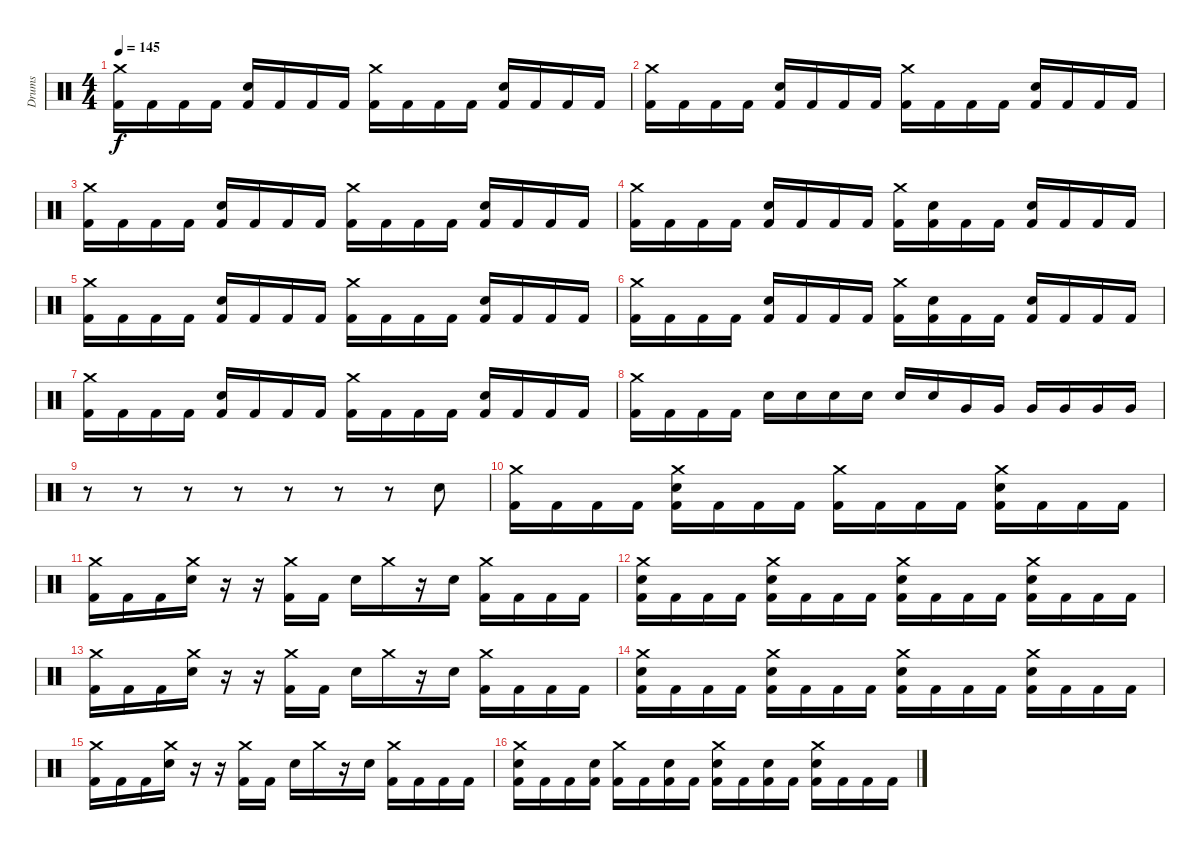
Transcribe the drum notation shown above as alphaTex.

\track ("Drums" "Drums") {instrument percussion}
\staff {score}
\articulation defaults
\ts (4 4)
\tempo 145
\clef neutral
\ks c
("Crash medium (hit)" "Kick (hit) 2").16{dy f} "Kick (hit) 2".16 "Kick (hit) 2".16 "Kick (hit) 2".16 ("Snare (hit) 2" "Kick (hit) 2").16 "Kick (hit) 2".16 "Kick (hit) 2".16 "Kick (hit) 2".16 ("Crash medium (hit)" "Kick (hit) 2").16 "Kick (hit) 2".16 "Kick (hit) 2".16 "Kick (hit) 2".16 ("Snare (hit) 2" "Kick (hit) 2").16 "Kick (hit) 2".16 "Kick (hit) 2".16 "Kick (hit) 2".16 |
("Crash medium (hit)" "Kick (hit) 2").16 "Kick (hit) 2".16 "Kick (hit) 2".16 "Kick (hit) 2".16 ("Snare (hit) 2" "Kick (hit) 2").16 "Kick (hit) 2".16 "Kick (hit) 2".16 "Kick (hit) 2".16 ("Crash medium (hit)" "Kick (hit) 2").16 "Kick (hit) 2".16 "Kick (hit) 2".16 "Kick (hit) 2".16 ("Snare (hit) 2" "Kick (hit) 2").16 "Kick (hit) 2".16 "Kick (hit) 2".16 "Kick (hit) 2".16 |
("Crash medium (hit)" "Kick (hit) 2").16 "Kick (hit) 2".16 "Kick (hit) 2".16 "Kick (hit) 2".16 ("Snare (hit) 2" "Kick (hit) 2").16 "Kick (hit) 2".16 "Kick (hit) 2".16 "Kick (hit) 2".16 ("Crash medium (hit)" "Kick (hit) 2").16 "Kick (hit) 2".16 "Kick (hit) 2".16 "Kick (hit) 2".16 ("Snare (hit) 2" "Kick (hit) 2").16 "Kick (hit) 2".16 "Kick (hit) 2".16 "Kick (hit) 2".16 |
("Crash medium (hit)" "Kick (hit) 2").16 "Kick (hit) 2".16 "Kick (hit) 2".16 "Kick (hit) 2".16 ("Snare (hit) 2" "Kick (hit) 2").16 "Kick (hit) 2".16 "Kick (hit) 2".16 "Kick (hit) 2".16 ("Crash medium (hit)" "Kick (hit) 2").16 ("Snare (hit) 2" "Kick (hit) 2").16 "Kick (hit) 2".16 "Kick (hit) 2".16 ("Snare (hit) 2" "Kick (hit) 2").16 "Kick (hit) 2".16 "Kick (hit) 2".16 "Kick (hit) 2".16 |
("Crash medium (hit)" "Kick (hit) 2").16 "Kick (hit) 2".16 "Kick (hit) 2".16 "Kick (hit) 2".16 ("Snare (hit) 2" "Kick (hit) 2").16 "Kick (hit) 2".16 "Kick (hit) 2".16 "Kick (hit) 2".16 ("Crash medium (hit)" "Kick (hit) 2").16 "Kick (hit) 2".16 "Kick (hit) 2".16 "Kick (hit) 2".16 ("Snare (hit) 2" "Kick (hit) 2").16 "Kick (hit) 2".16 "Kick (hit) 2".16 "Kick (hit) 2".16 |
("Crash medium (hit)" "Kick (hit) 2").16 "Kick (hit) 2".16 "Kick (hit) 2".16 "Kick (hit) 2".16 ("Snare (hit) 2" "Kick (hit) 2").16 "Kick (hit) 2".16 "Kick (hit) 2".16 "Kick (hit) 2".16 ("Crash medium (hit)" "Kick (hit) 2").16 ("Snare (hit) 2" "Kick (hit) 2").16 "Kick (hit) 2".16 "Kick (hit) 2".16 ("Snare (hit) 2" "Kick (hit) 2").16 "Kick (hit) 2".16 "Kick (hit) 2".16 "Kick (hit) 2".16 |
("Crash medium (hit)" "Kick (hit) 2").16 "Kick (hit) 2".16 "Kick (hit) 2".16 "Kick (hit) 2".16 ("Snare (hit) 2" "Kick (hit) 2").16 "Kick (hit) 2".16 "Kick (hit) 2".16 "Kick (hit) 2".16 ("Crash medium (hit)" "Kick (hit) 2").16 "Kick (hit) 2".16 "Kick (hit) 2".16 "Kick (hit) 2".16 ("Snare (hit) 2" "Kick (hit) 2").16 "Kick (hit) 2".16 "Kick (hit) 2".16 "Kick (hit) 2".16 |
("Crash medium (hit)" "Kick (hit) 2").16 "Kick (hit) 2".16 "Kick (hit) 2".16 "Kick (hit) 2".16 "Snare (hit) 2".16 "Snare (hit) 2".16 "Snare (hit) 2".16 "Snare (hit) 2".16 "Snare (hit) 2".16 "Snare (hit) 2".16 "Very Low Tom (hit)".16 "Very Low Tom (hit)".16 "Very Low Tom (hit)".16 "Very Low Tom (hit)".16 "Very Low Tom (hit)".16 "Very Low Tom (hit)".16 |
r.8 r.8 r.8 r.8 r.8 r.8 r.8 "Electric Snare (hit)".8 |
("Crash medium (hit)" "Kick (hit) 2").16 "Kick (hit) 2".16 "Kick (hit) 2".16 "Kick (hit) 2".16 ("Crash medium (hit)" "Snare (hit) 2" "Kick (hit) 2").16 "Kick (hit) 2".16 "Kick (hit) 2".16 "Kick (hit) 2".16 ("Crash medium (hit)" "Kick (hit) 2").16 "Kick (hit) 2".16 "Kick (hit) 2".16 "Kick (hit) 2".16 ("Crash medium (hit)" "Snare (hit) 2" "Kick (hit) 2").16 "Kick (hit) 2".16 "Kick (hit) 2".16 "Kick (hit) 2".16 |
("Crash medium (hit)" "Kick (hit) 2").16 "Kick (hit) 2".16 "Kick (hit) 2".16 ("Crash medium (hit)" "Snare (hit) 2").16 r.16 r.16 ("Crash medium (hit)" "Kick (hit) 2").16 "Kick (hit) 2".16 "Snare (hit) 2".16 "Crash medium (hit)".16 r.16 "Snare (hit) 2".16 ("Crash medium (hit)" "Kick (hit) 2").16 "Kick (hit) 2".16 "Kick (hit) 2".16 "Kick (hit) 2".16 |
("Crash medium (hit)" "Snare (hit) 2" "Kick (hit) 2").16 "Kick (hit) 2".16 "Kick (hit) 2".16 "Kick (hit) 2".16 ("Crash medium (hit)" "Snare (hit) 2" "Kick (hit) 2").16 "Kick (hit) 2".16 "Kick (hit) 2".16 "Kick (hit) 2".16 ("Crash medium (hit)" "Snare (hit) 2" "Kick (hit) 2").16 "Kick (hit) 2".16 "Kick (hit) 2".16 "Kick (hit) 2".16 ("Crash medium (hit)" "Snare (hit) 2" "Kick (hit) 2").16 "Kick (hit) 2".16 "Kick (hit) 2".16 "Kick (hit) 2".16 |
("Crash medium (hit)" "Kick (hit) 2").16 "Kick (hit) 2".16 "Kick (hit) 2".16 ("Crash medium (hit)" "Snare (hit) 2").16 r.16 r.16 ("Crash medium (hit)" "Kick (hit) 2").16 "Kick (hit) 2".16 "Snare (hit) 2".16 "Crash medium (hit)".16 r.16 "Snare (hit) 2".16 ("Crash medium (hit)" "Kick (hit) 2").16 "Kick (hit) 2".16 "Kick (hit) 2".16 "Kick (hit) 2".16 |
("Crash medium (hit)" "Snare (hit) 2" "Kick (hit) 2").16 "Kick (hit) 2".16 "Kick (hit) 2".16 "Kick (hit) 2".16 ("Crash medium (hit)" "Snare (hit) 2" "Kick (hit) 2").16 "Kick (hit) 2".16 "Kick (hit) 2".16 "Kick (hit) 2".16 ("Crash medium (hit)" "Snare (hit) 2" "Kick (hit) 2").16 "Kick (hit) 2".16 "Kick (hit) 2".16 "Kick (hit) 2".16 ("Crash medium (hit)" "Snare (hit) 2" "Kick (hit) 2").16 "Kick (hit) 2".16 "Kick (hit) 2".16 "Kick (hit) 2".16 |
("Crash medium (hit)" "Kick (hit) 2").16 "Kick (hit) 2".16 "Kick (hit) 2".16 ("Crash medium (hit)" "Snare (hit) 2").16 r.16 r.16 ("Crash medium (hit)" "Kick (hit) 2").16 "Kick (hit) 2".16 "Snare (hit) 2".16 "Crash medium (hit)".16 r.16 "Snare (hit) 2".16 ("Crash medium (hit)" "Kick (hit) 2").16 "Kick (hit) 2".16 "Kick (hit) 2".16 "Kick (hit) 2".16 |
("Crash medium (hit)" "Snare (hit) 2" "Kick (hit) 2").16 "Kick (hit) 2".16 "Kick (hit) 2".16 ("Snare (hit) 2" "Kick (hit) 2").16 ("Crash medium (hit)" "Kick (hit) 2").16 "Kick (hit) 2".16 ("Snare (hit) 2" "Kick (hit) 2").16 "Kick (hit) 2".16 ("Crash medium (hit)" "Snare (hit) 2" "Kick (hit) 2").16 "Kick (hit) 2".16 ("Snare (hit) 2" "Kick (hit) 2").16 "Kick (hit) 2".16 ("Crash medium (hit)" "Snare (hit) 2" "Kick (hit) 2").16 "Kick (hit) 2".16 "Kick (hit) 2".16 "Kick (hit) 2".16
